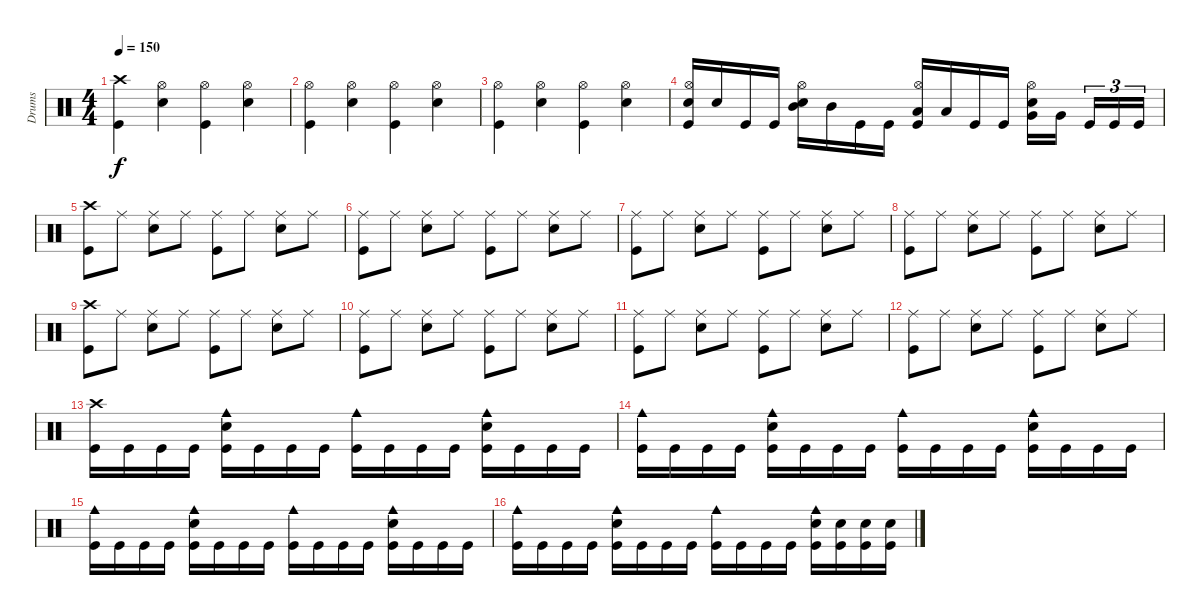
\track ("Drums" "Drums") {instrument percussion}
\staff {score}
\articulation defaults
\ts (4 4)
\tempo 150
\clef neutral
\ks c
("Crash high (hit)" "Kick (hit)").4{dy f} ("Hi-Hat (open)" "Electric Snare (hit)").4 ("Hi-Hat (open)" "Kick (hit)").4 ("Hi-Hat (open)" "Electric Snare (hit)").4 |
("Hi-Hat (open)" "Kick (hit)").4 ("Hi-Hat (open)" "Electric Snare (hit)").4 ("Hi-Hat (open)" "Kick (hit)").4 ("Hi-Hat (open)" "Electric Snare (hit)").4 |
("Hi-Hat (open)" "Kick (hit)").4 ("Hi-Hat (open)" "Electric Snare (hit)").4 ("Hi-Hat (open)" "Kick (hit)").4 ("Hi-Hat (open)" "Electric Snare (hit)").4 |
("Hi-Hat (open)" "Kick (hit)" "Electric Snare (hit)").16 "Electric Snare (hit)".16 "Kick (hit)".16 "Kick (hit)".16 ("Hi-Hat (open)" "Electric Snare (hit)" "Mid Tom (hit)").16 "Mid Tom (hit)".16 "Kick (hit)".16 "Kick (hit)".16 ("Hi-Hat (open)" "Kick (hit)" "Low Tom (hit)").16 "Low Tom (hit)".16 "Kick (hit)".16 "Kick (hit)".16 ("Hi-Hat (open)" "Electric Snare (hit)" "Very Low Tom (hit)").16 "Very Low Tom (hit)".16 "Kick (hit)".16{tu (3 2)} "Kick (hit)".16{tu (3 2)} "Kick (hit)".16{tu (3 2)} |
("Crash high (hit)" "Kick (hit)").8 "Ride (middle)".8 ("Ride (middle)" "Electric Snare (hit)").8 "Ride (middle)".8 ("Ride (middle)" "Kick (hit)").8 "Ride (middle)".8 ("Ride (middle)" "Electric Snare (hit)").8 "Ride (middle)".8 |
("Ride (middle)" "Kick (hit)").8 "Ride (middle)".8 ("Ride (middle)" "Electric Snare (hit)").8 "Ride (middle)".8 ("Ride (middle)" "Kick (hit)").8 "Ride (middle)".8 ("Ride (middle)" "Electric Snare (hit)").8 "Ride (middle)".8 |
("Ride (middle)" "Kick (hit)").8 "Ride (middle)".8 ("Ride (middle)" "Electric Snare (hit)").8 "Ride (middle)".8 ("Ride (middle)" "Kick (hit)").8 "Ride (middle)".8 ("Ride (middle)" "Electric Snare (hit)").8 "Ride (middle)".8 |
("Ride (middle)" "Kick (hit)").8 "Ride (middle)".8 ("Ride (middle)" "Electric Snare (hit)").8 "Ride (middle)".8 ("Ride (middle)" "Kick (hit)").8 "Ride (middle)".8 ("Ride (middle)" "Electric Snare (hit)").8 "Ride (middle)".8 |
("Crash high (hit)" "Kick (hit)").8 "Ride (middle)".8 ("Ride (middle)" "Electric Snare (hit)").8 "Ride (middle)".8 ("Ride (middle)" "Kick (hit)").8 "Ride (middle)".8 ("Ride (middle)" "Electric Snare (hit)").8 "Ride (middle)".8 |
("Ride (middle)" "Kick (hit)").8 "Ride (middle)".8 ("Ride (middle)" "Electric Snare (hit)").8 "Ride (middle)".8 ("Ride (middle)" "Kick (hit)").8 "Ride (middle)".8 ("Ride (middle)" "Electric Snare (hit)").8 "Ride (middle)".8 |
("Ride (middle)" "Kick (hit)").8 "Ride (middle)".8 ("Ride (middle)" "Electric Snare (hit)").8 "Ride (middle)".8 ("Ride (middle)" "Kick (hit)").8 "Ride (middle)".8 ("Ride (middle)" "Electric Snare (hit)").8 "Ride (middle)".8 |
("Ride (middle)" "Kick (hit)").8 "Ride (middle)".8 ("Ride (middle)" "Electric Snare (hit)").8 "Ride (middle)".8 ("Ride (middle)" "Kick (hit)").8 "Ride (middle)".8 ("Ride (middle)" "Electric Snare (hit)").8 "Ride (middle)".8 |
("Crash high (hit)" "Kick (hit)").16 "Kick (hit)".16 "Kick (hit)".16 "Kick (hit)".16 ("Cowbell medium (hit)" "Electric Snare (hit)" "Kick (hit)").16 "Kick (hit)".16 "Kick (hit)".16 "Kick (hit)".16 ("Cowbell medium (hit)" "Kick (hit)").16 "Kick (hit)".16 "Kick (hit)".16 "Kick (hit)".16 ("Cowbell medium (hit)" "Electric Snare (hit)" "Kick (hit)").16 "Kick (hit)".16 "Kick (hit)".16 "Kick (hit)".16 |
("Cowbell medium (hit)" "Kick (hit)").16 "Kick (hit)".16 "Kick (hit)".16 "Kick (hit)".16 ("Cowbell medium (hit)" "Electric Snare (hit)" "Kick (hit)").16 "Kick (hit)".16 "Kick (hit)".16 "Kick (hit)".16 ("Cowbell medium (hit)" "Kick (hit)").16 "Kick (hit)".16 "Kick (hit)".16 "Kick (hit)".16 ("Cowbell medium (hit)" "Electric Snare (hit)" "Kick (hit)").16 "Kick (hit)".16 "Kick (hit)".16 "Kick (hit)".16 |
("Cowbell medium (hit)" "Kick (hit)").16 "Kick (hit)".16 "Kick (hit)".16 "Kick (hit)".16 ("Cowbell medium (hit)" "Electric Snare (hit)" "Kick (hit)").16 "Kick (hit)".16 "Kick (hit)".16 "Kick (hit)".16 ("Cowbell medium (hit)" "Kick (hit)").16 "Kick (hit)".16 "Kick (hit)".16 "Kick (hit)".16 ("Cowbell medium (hit)" "Electric Snare (hit)" "Kick (hit)").16 "Kick (hit)".16 "Kick (hit)".16 "Kick (hit)".16 |
("Cowbell medium (hit)" "Kick (hit)").16 "Kick (hit)".16 "Kick (hit)".16 "Kick (hit)".16 ("Cowbell medium (hit)" "Electric Snare (hit)" "Kick (hit)").16 "Kick (hit)".16 "Kick (hit)".16 "Kick (hit)".16 ("Cowbell medium (hit)" "Kick (hit)").16 "Kick (hit)".16 "Kick (hit)".16 "Kick (hit)".16 ("Cowbell medium (hit)" "Electric Snare (hit)" "Kick (hit)").16 ("Electric Snare (hit)" "Kick (hit)").16 ("Electric Snare (hit)" "Kick (hit)").16 ("Electric Snare (hit)" "Kick (hit)").16
